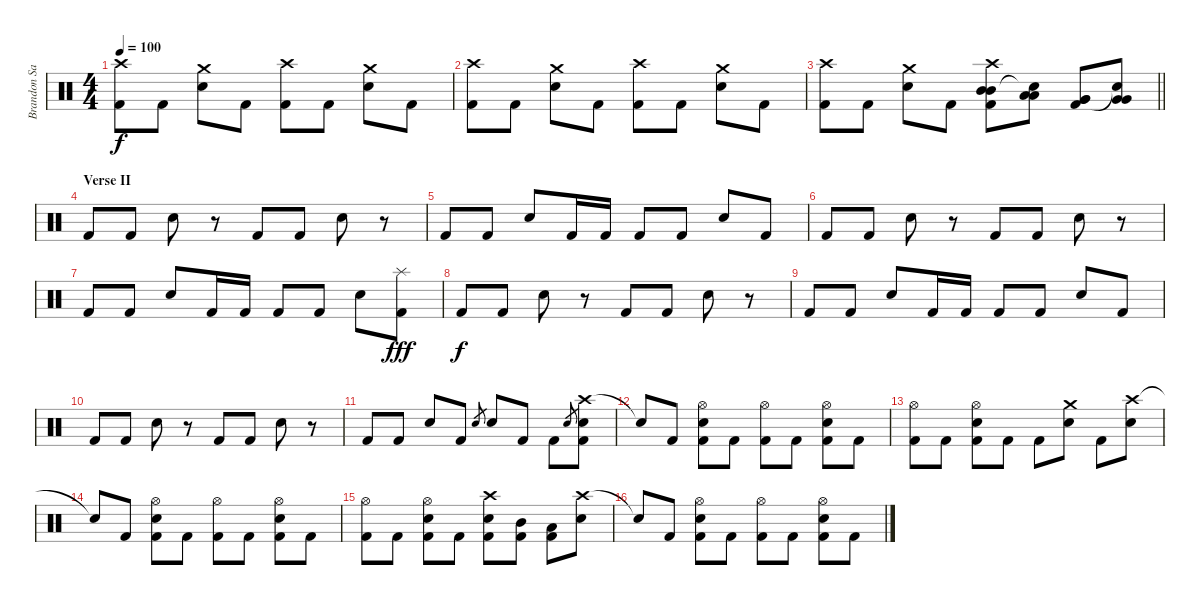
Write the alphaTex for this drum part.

\track ("Brandon Saller" "Brandon Sa") {instrument percussion}
\staff {score}
\articulation defaults
\ts (4 4)
\tempo 100
\clef neutral
\ks c
("Crash high (hit)" "Kick (hit) 2").8{dy f} "Kick (hit) 2".8 ("Crash medium (hit)" "Electric Snare (hit)").8 "Kick (hit) 2".8 ("Crash high (hit)" "Kick (hit) 2").8 "Kick (hit) 2".8 ("Crash medium (hit)" "Electric Snare (hit)").8 "Kick (hit) 2".8 |
("Crash high (hit)" "Kick (hit) 2").8 "Kick (hit) 2".8 ("Crash medium (hit)" "Electric Snare (hit)").8 "Kick (hit) 2".8 ("Crash high (hit)" "Kick (hit) 2").8 "Kick (hit) 2".8 ("Crash medium (hit)" "Electric Snare (hit)").8 "Kick (hit) 2".8 |
\barLineRight lightlight
("Crash high (hit)" "Kick (hit) 2").8 "Kick (hit) 2".8 ("Crash medium (hit)" "Electric Snare (hit)").8 "Kick (hit) 2".8 ("Crash high (hit)" "Mid Tom (hit)" "Mid Tom (hit)" "Kick (hit) 2").8 ("Low Tom (hit)" "Low Tom (hit)" "Snare (hit)"{t}).8 ("Very Low Tom (hit)" "Very Low Tom (hit)" "Kick (hit) 2").8 ("Very Low Tom (hit)" "Very Low Tom (hit)" "Snare (hit)"{t}).8 |
\section ("" "Verse II")
"Kick (hit) 2".8 "Kick (hit) 2".8 "Electric Snare (hit)".8 r.8 "Kick (hit) 2".8 "Kick (hit) 2".8 "Electric Snare (hit)".8 r.8 |
"Kick (hit) 2".8 "Kick (hit) 2".8 "Electric Snare (hit)".8 "Kick (hit) 2".16 "Kick (hit) 2".16 "Kick (hit) 2".8 "Kick (hit) 2".8 "Electric Snare (hit)".8 "Kick (hit) 2".8 |
"Kick (hit) 2".8 "Kick (hit) 2".8 "Electric Snare (hit)".8 r.8 "Kick (hit) 2".8 "Kick (hit) 2".8 "Electric Snare (hit)".8 r.8 |
"Kick (hit) 2".8 "Kick (hit) 2".8 "Electric Snare (hit)".8 "Kick (hit) 2".16 "Kick (hit) 2".16 "Kick (hit) 2".8 "Kick (hit) 2".8 "Electric Snare (hit)".8 ("Splash (hit)" "Kick (hit) 2").8{dy fff} |
"Kick (hit) 2".8{dy f} "Kick (hit) 2".8 "Electric Snare (hit)".8 r.8 "Kick (hit) 2".8 "Kick (hit) 2".8 "Electric Snare (hit)".8 r.8 |
"Kick (hit) 2".8 "Kick (hit) 2".8 "Electric Snare (hit)".8 "Kick (hit) 2".16 "Kick (hit) 2".16 "Kick (hit) 2".8 "Kick (hit) 2".8 "Electric Snare (hit)".8 "Kick (hit) 2".8 |
"Kick (hit) 2".8 "Kick (hit) 2".8 "Electric Snare (hit)".8 r.8 "Kick (hit) 2".8 "Kick (hit) 2".8 "Electric Snare (hit)".8 r.8 |
"Kick (hit) 2".8 "Kick (hit) 2".8 "Electric Snare (hit)".8 "Kick (hit) 2".8 "Electric Snare (hit)".8{gr} "Electric Snare (hit)".8 "Kick (hit) 2".8 "Kick (hit) 2".8 "Electric Snare (hit)".8{gr} ("Crash high (hit)" "Electric Snare (hit)" "Kick (hit) 2").8 |
"Snare (hit)"{t}.8 "Kick (hit) 2".8 ("Hi-Hat (open)" "Electric Snare (hit)" "Kick (hit) 2").8 "Kick (hit) 2".8 ("Hi-Hat (open)" "Kick (hit) 2").8 "Kick (hit) 2".8 ("Hi-Hat (open)" "Electric Snare (hit)" "Kick (hit) 2").8 "Kick (hit) 2".8 |
("Hi-Hat (open)" "Kick (hit) 2").8 "Kick (hit) 2".8 ("Hi-Hat (open)" "Electric Snare (hit)" "Kick (hit) 2").8 "Kick (hit) 2".8 "Kick (hit) 2".8 ("Crash medium (hit)" "Electric Snare (hit)").8 "Kick (hit) 2".8 ("Crash high (hit)" "Electric Snare (hit)").8 |
"Snare (hit)"{t}.8 "Kick (hit) 2".8 ("Hi-Hat (open)" "Electric Snare (hit)" "Kick (hit) 2").8 "Kick (hit) 2".8 ("Hi-Hat (open)" "Kick (hit) 2").8 "Kick (hit) 2".8 ("Hi-Hat (open)" "Electric Snare (hit)" "Kick (hit) 2").8 "Kick (hit) 2".8 |
("Hi-Hat (open)" "Kick (hit) 2").8 "Kick (hit) 2".8 ("Hi-Hat (open)" "Electric Snare (hit)" "Kick (hit) 2").8 "Kick (hit) 2".8 ("Crash high (hit)" "Electric Snare (hit)" "Kick (hit) 2").8 ("Mid Tom (hit)" "Kick (hit) 2").8 ("Low Tom (hit)" "Kick (hit) 2").8 ("Crash high (hit)" "Electric Snare (hit)").8 |
"Snare (hit)"{t}.8 "Kick (hit) 2".8 ("Hi-Hat (open)" "Electric Snare (hit)" "Kick (hit) 2").8 "Kick (hit) 2".8 ("Hi-Hat (open)" "Kick (hit) 2").8 "Kick (hit) 2".8 ("Hi-Hat (open)" "Electric Snare (hit)" "Kick (hit) 2").8 "Kick (hit) 2".8
